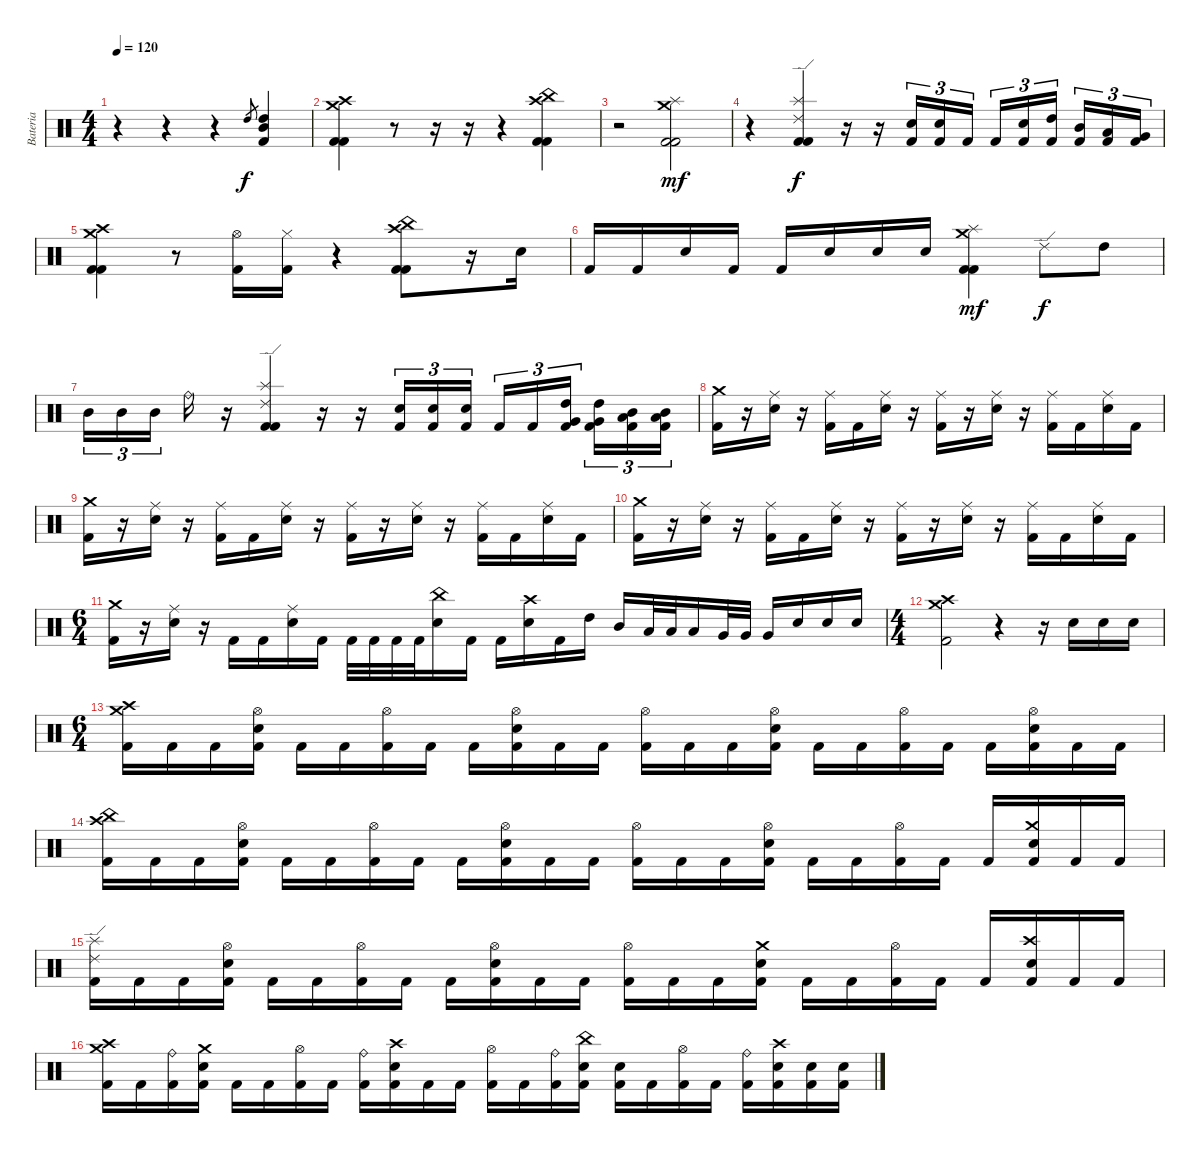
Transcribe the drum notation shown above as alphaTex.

\track ("Bateria" "Bateria") {instrument percussion}
\staff {score}
\articulation defaults
\ts (4 4)
\tempo 120
\clef neutral
\ks c
r.4{dy f} r.4 r.4 "High Tom (hit)".8{gr} ("High Tom (hit)" "Mid Tom (hit)" "Kick (hit) 2").4 |
("Crash medium (hit)" "Crash high (hit)" "Kick (hit) 2" "Kick (hit) 2").4 r.8 r.16 r.16 r.4 ("Crash high (hit)" "China (hit)" "Kick (hit) 2" "Kick (hit) 2").4 |
r.2 ("Crash medium (hit)" "Splash (hit)" "Kick (hit) 2" "Kick (hit) 2").2{dy mf} |
r.4 ("Ride (edge) 2" "Splash (hit)" "Kick (hit) 2" "Kick (hit) 2").4{dy f} r.16 r.16 ("Electric Snare (hit)" "Kick (hit) 2").16{tu (3 2)} ("Electric Snare (hit)" "Kick (hit) 2").16{tu (3 2)} "Kick (hit) 2".16{tu (3 2)} "Kick (hit) 2".16{tu (3 2)} ("Electric Snare (hit)" "Kick (hit) 2").16{tu (3 2)} ("High Tom (hit)" "Kick (hit) 2").16{tu (3 2)} ("Mid Tom (hit)" "Kick (hit) 2").16{tu (3 2)} ("Low Tom (hit)" "Kick (hit) 2").16{tu (3 2)} ("Very Low Tom (hit)" "Kick (hit) 2").16{tu (3 2)} |
("Crash medium (hit)" "Crash high (hit)" "Kick (hit) 2" "Kick (hit) 2").4 r.8 ("Hi-Hat (open)" "Kick (hit) 2").16 ("Hi-Hat (closed)" "Kick (hit) 2").16 r.4 ("Crash high (hit)" "China (hit)" "Kick (hit) 2" "Kick (hit) 2").8 r.16 "Electric Snare (hit)".16 |
"Kick (hit) 2".16 "Kick (hit) 2".16 "Electric Snare (hit)".16 "Kick (hit) 2".16 "Kick (hit) 2".16 "Electric Snare (hit)".16 "Electric Snare (hit)".16 "Electric Snare (hit)".16 ("Crash medium (hit)" "Splash (hit)" "Kick (hit) 2" "Kick (hit) 2").4{dy mf} "Ride (edge) 2".8{dy f} "High Tom (hit)".8 |
"Mid Tom (hit)".16{tu (3 2)} "Mid Tom (hit)".16{tu (3 2)} "Mid Tom (hit)".16{tu (3 2)} "Ride (bell)".16 r.16 ("Ride (edge) 2" "Splash (hit)" "Kick (hit) 2" "Kick (hit) 2").4 r.16 r.16 ("Electric Snare (hit)" "Kick (hit) 2").16{tu (3 2)} ("Electric Snare (hit)" "Kick (hit) 2").16{tu (3 2)} ("Electric Snare (hit)" "Kick (hit) 2").16{tu (3 2)} "Kick (hit) 2".16{tu (3 2)} "Kick (hit) 2".16{tu (3 2)} ("High Tom (hit)" "Very Low Tom (hit)" "Kick (hit) 2").16{tu (3 2)} ("High Tom (hit)" "Very Low Tom (hit)" "Kick (hit) 2").16{tu (3 2)} ("Mid Tom (hit)" "Low Floor Tom (hit)" "Kick (hit) 2").16{tu (3 2)} ("Mid Tom (hit)" "Low Floor Tom (hit)" "Kick (hit) 2").16{tu (3 2)} |
("Crash medium (hit)" "Kick (hit) 2").16 r.16 ("Ride (middle)" "Electric Snare (hit)").16 r.16 ("Ride (middle)" "Kick (hit) 2").16 "Kick (hit) 2".16 ("Ride (middle)" "Electric Snare (hit)").16 r.16 ("Ride (middle)" "Kick (hit) 2").16 r.16 ("Ride (middle)" "Electric Snare (hit)").16 r.16 ("Ride (middle)" "Kick (hit) 2").16 "Kick (hit) 2".16 ("Ride (middle)" "Electric Snare (hit)").16 "Kick (hit) 2".16 |
("Crash medium (hit)" "Kick (hit) 2").16 r.16 ("Ride (middle)" "Electric Snare (hit)").16 r.16 ("Ride (middle)" "Kick (hit) 2").16 "Kick (hit) 2".16 ("Ride (middle)" "Electric Snare (hit)").16 r.16 ("Ride (middle)" "Kick (hit) 2").16 r.16 ("Ride (middle)" "Electric Snare (hit)").16 r.16 ("Ride (middle)" "Kick (hit) 2").16 "Kick (hit) 2".16 ("Ride (middle)" "Electric Snare (hit)").16 "Kick (hit) 2".16 |
("Crash medium (hit)" "Kick (hit) 2").16 r.16 ("Ride (middle)" "Electric Snare (hit)").16 r.16 ("Ride (middle)" "Kick (hit) 2").16 "Kick (hit) 2".16 ("Ride (middle)" "Electric Snare (hit)").16 r.16 ("Ride (middle)" "Kick (hit) 2").16 r.16 ("Ride (middle)" "Electric Snare (hit)").16 r.16 ("Ride (middle)" "Kick (hit) 2").16 "Kick (hit) 2".16 ("Ride (middle)" "Electric Snare (hit)").16 "Kick (hit) 2".16 |
\ts (6 4)
("Crash medium (hit)" "Kick (hit) 2").16 r.16 ("Ride (middle)" "Electric Snare (hit)").16 r.16 "Kick (hit) 2".16 "Kick (hit) 2".16 ("Ride (middle)" "Electric Snare (hit)").16 "Kick (hit) 2".16 "Kick (hit) 2".32 "Kick (hit) 2".32 "Kick (hit) 2".32 "Kick (hit) 2".32 ("China (hit)" "Electric Snare (hit)").16 "Kick (hit) 2".16 "Kick (hit) 2".16 ("Crash high (hit)" "Electric Snare (hit)").16 "Kick (hit) 2".16 "High Tom (hit)".16 "Mid Tom (hit)".16 "Low Tom (hit)".32 "Low Tom (hit)".32 "Low Tom (hit)".16 "Very Low Tom (hit)".32 "Very Low Tom (hit)".32 "Very Low Tom (hit)".16 "Electric Snare (hit)".16 "Electric Snare (hit)".16 "Electric Snare (hit)".16 |
\ts (4 4)
("Crash medium (hit)" "Crash high (hit)" "Kick (hit) 2").2 r.4 r.16 "Electric Snare (hit)".16 "Electric Snare (hit)".16 "Electric Snare (hit)".16 |
\ts (6 4)
("Crash medium (hit)" "Crash high (hit)" "Kick (hit) 2").16 "Kick (hit) 2".16 "Kick (hit) 2".16 ("Hi-Hat (open)" "Electric Snare (hit)" "Kick (hit) 2").16 "Kick (hit) 2".16 "Kick (hit) 2".16 ("Hi-Hat (open)" "Kick (hit) 2").16 "Kick (hit) 2".16 "Kick (hit) 2".16 ("Hi-Hat (open)" "Electric Snare (hit)" "Kick (hit) 2").16 "Kick (hit) 2".16 "Kick (hit) 2".16 ("Hi-Hat (open)" "Kick (hit) 2").16 "Kick (hit) 2".16 "Kick (hit) 2".16 ("Hi-Hat (open)" "Electric Snare (hit)" "Kick (hit) 2").16 "Kick (hit) 2".16 "Kick (hit) 2".16 ("Hi-Hat (open)" "Kick (hit) 2").16 "Kick (hit) 2".16 "Kick (hit) 2".16 ("Hi-Hat (open)" "Electric Snare (hit)" "Kick (hit) 2").16 "Kick (hit) 2".16 "Kick (hit) 2".16 |
("China (hit)" "Crash high (hit)" "Kick (hit) 2").16 "Kick (hit) 2".16 "Kick (hit) 2".16 ("Hi-Hat (open)" "Electric Snare (hit)" "Kick (hit) 2").16 "Kick (hit) 2".16 "Kick (hit) 2".16 ("Hi-Hat (open)" "Kick (hit) 2").16 "Kick (hit) 2".16 "Kick (hit) 2".16 ("Hi-Hat (open)" "Electric Snare (hit)" "Kick (hit) 2").16 "Kick (hit) 2".16 "Kick (hit) 2".16 ("Hi-Hat (open)" "Kick (hit) 2").16 "Kick (hit) 2".16 "Kick (hit) 2".16 ("Hi-Hat (open)" "Electric Snare (hit)" "Kick (hit) 2").16 "Kick (hit) 2".16 "Kick (hit) 2".16 ("Hi-Hat (open)" "Kick (hit) 2").16 "Kick (hit) 2".16 "Kick (hit) 2".16 ("Crash medium (hit)" "Electric Snare (hit)" "Kick (hit) 2").16 "Kick (hit) 2".16 "Kick (hit) 2".16 |
("Ride (edge) 2" "Splash (hit)" "Kick (hit) 2").16 "Kick (hit) 2".16 "Kick (hit) 2".16 ("Hi-Hat (open)" "Electric Snare (hit)" "Kick (hit) 2").16 "Kick (hit) 2".16 "Kick (hit) 2".16 ("Hi-Hat (open)" "Kick (hit) 2").16 "Kick (hit) 2".16 "Kick (hit) 2".16 ("Hi-Hat (open)" "Electric Snare (hit)" "Kick (hit) 2").16 "Kick (hit) 2".16 "Kick (hit) 2".16 ("Hi-Hat (open)" "Kick (hit) 2").16 "Kick (hit) 2".16 "Kick (hit) 2".16 ("Crash medium (hit)" "Electric Snare (hit)" "Kick (hit) 2").16 "Kick (hit) 2".16 "Kick (hit) 2".16 ("Hi-Hat (open)" "Kick (hit) 2").16 "Kick (hit) 2".16 "Kick (hit) 2".16 ("Crash high (hit)" "Electric Snare (hit)" "Kick (hit) 2").16 "Kick (hit) 2".16 "Kick (hit) 2".16 |
("Crash medium (hit)" "Crash high (hit)" "Kick (hit) 2").16 "Kick (hit) 2".16 ("Ride (bell)" "Kick (hit) 2").16 ("Crash medium (hit)" "Electric Snare (hit)" "Kick (hit) 2").16 "Kick (hit) 2".16 "Kick (hit) 2".16 ("Hi-Hat (open)" "Kick (hit) 2").16 "Kick (hit) 2".16 ("Ride (bell)" "Kick (hit) 2").16 ("Crash high (hit)" "Electric Snare (hit)" "Kick (hit) 2").16 "Kick (hit) 2".16 "Kick (hit) 2".16 ("Hi-Hat (open)" "Kick (hit) 2").16 "Kick (hit) 2".16 ("Ride (bell)" "Kick (hit) 2").16 ("China (hit)" "Electric Snare (hit)" "Kick (hit) 2").16 ("Electric Snare (hit)" "Kick (hit) 2").16 "Kick (hit) 2".16 ("Hi-Hat (open)" "Kick (hit) 2").16 "Kick (hit) 2".16 ("Ride (bell)" "Kick (hit) 2").16 ("Crash high (hit)" "Electric Snare (hit)" "Kick (hit) 2").16 ("Electric Snare (hit)" "Kick (hit) 2").16 ("Electric Snare (hit)" "Kick (hit) 2").16
